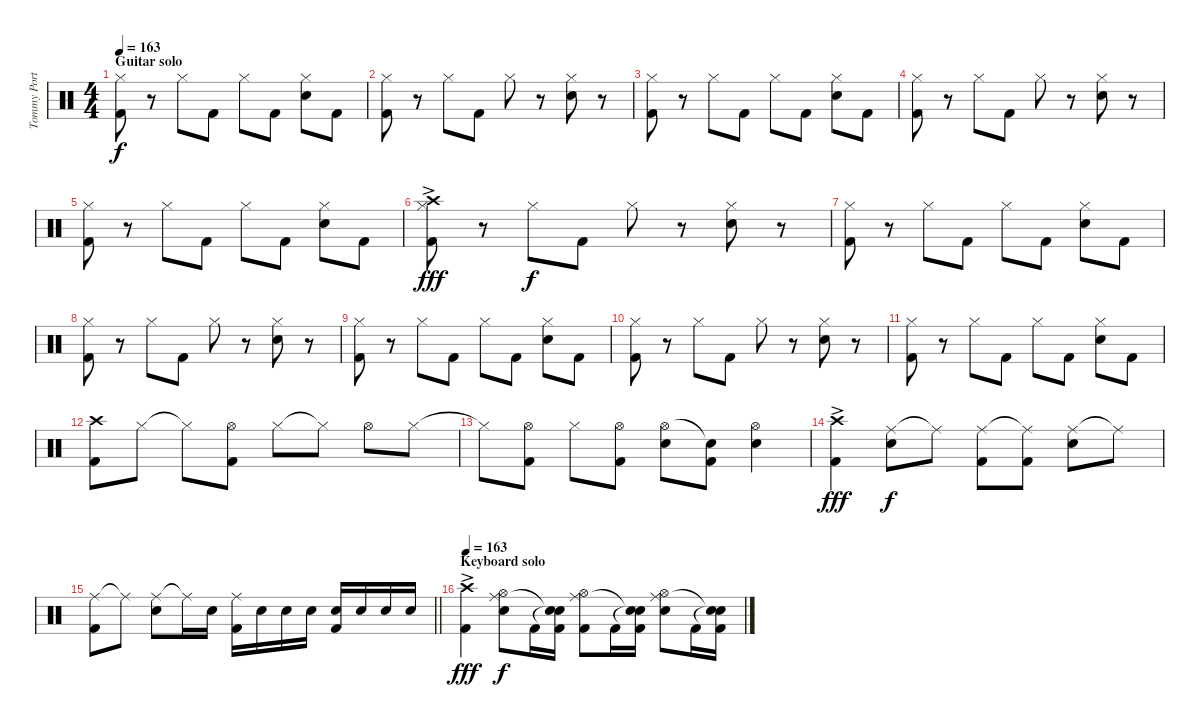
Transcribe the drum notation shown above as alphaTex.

\track ("Tommy Portimo" "Tommy Port") {instrument percussion}
\staff {score}
\articulation defaults
\ts (4 4)
\section ("" "Guitar solo")
\tempo 163
\clef neutral
\ks c
("Hi-Hat (closed)" "Kick (hit) 2").8{dy f} r.8 "Hi-Hat (closed)".8 "Kick (hit) 2".8 "Hi-Hat (closed)".8 "Kick (hit) 2".8 ("Hi-Hat (closed)" "Electric Snare (hit)").8 "Kick (hit) 2".8 |
("Hi-Hat (closed)" "Kick (hit) 2").8 r.8 "Hi-Hat (closed)".8 "Kick (hit) 2".8 "Hi-Hat (closed)".8 r.8 ("Hi-Hat (closed)" "Electric Snare (hit)").8 r.8 |
("Hi-Hat (closed)" "Kick (hit) 2").8 r.8 "Hi-Hat (closed)".8 "Kick (hit) 2".8 "Hi-Hat (closed)".8 "Kick (hit) 2".8 ("Hi-Hat (closed)" "Electric Snare (hit)").8 "Kick (hit) 2".8 |
("Hi-Hat (closed)" "Kick (hit) 2").8 r.8 "Hi-Hat (closed)".8 "Kick (hit) 2".8 "Hi-Hat (closed)".8 r.8 ("Hi-Hat (closed)" "Electric Snare (hit)").8 r.8 |
("Hi-Hat (closed)" "Kick (hit) 2").8 r.8 "Hi-Hat (closed)".8 "Kick (hit) 2".8 "Hi-Hat (closed)".8 "Kick (hit) 2".8 ("Hi-Hat (closed)" "Electric Snare (hit)").8 "Kick (hit) 2".8 |
("Crash high (hit)"{ac} "Hi-Hat (closed)" "Kick (hit) 2").8{dy fff} r.8 "Hi-Hat (closed)".8{dy f} "Kick (hit) 2".8 "Hi-Hat (closed)".8 r.8 ("Hi-Hat (closed)" "Electric Snare (hit)").8 r.8 |
("Hi-Hat (closed)" "Kick (hit) 2").8 r.8 "Hi-Hat (closed)".8 "Kick (hit) 2".8 "Hi-Hat (closed)".8 "Kick (hit) 2".8 ("Hi-Hat (closed)" "Electric Snare (hit)").8 "Kick (hit) 2".8 |
("Hi-Hat (closed)" "Kick (hit) 2").8 r.8 "Hi-Hat (closed)".8 "Kick (hit) 2".8 "Hi-Hat (closed)".8 r.8 ("Hi-Hat (closed)" "Electric Snare (hit)").8 r.8 |
("Hi-Hat (closed)" "Kick (hit) 2").8 r.8 "Hi-Hat (closed)".8 "Kick (hit) 2".8 "Hi-Hat (closed)".8 "Kick (hit) 2".8 ("Hi-Hat (closed)" "Electric Snare (hit)").8 "Kick (hit) 2".8 |
("Hi-Hat (closed)" "Kick (hit) 2").8 r.8 "Hi-Hat (closed)".8 "Kick (hit) 2".8 "Hi-Hat (closed)".8 r.8 ("Hi-Hat (closed)" "Electric Snare (hit)").8 r.8 |
("Hi-Hat (closed)" "Kick (hit) 2").8 r.8 "Hi-Hat (closed)".8 "Kick (hit) 2".8 "Hi-Hat (closed)".8 "Kick (hit) 2".8 ("Hi-Hat (closed)" "Electric Snare (hit)").8 "Kick (hit) 2".8 |
("Crash high (hit)" "Kick (hit) 2").8 "Hi-Hat (closed)".8 "Hi-Hat (closed)"{t}.8 ("Hi-Hat (open)" "Kick (hit) 2").8 "Hi-Hat (closed)".8 "Hi-Hat (closed)"{t}.8 "Hi-Hat (open)".8 "Hi-Hat (closed)".8 |
"Hi-Hat (closed)"{t}.8 ("Hi-Hat (open)" "Kick (hit) 2").8 "Hi-Hat (closed)".8 ("Hi-Hat (open)" "Kick (hit) 2").8 ("Hi-Hat (open)" "Electric Snare (hit)").8 ("Snare (hit)"{t} "Kick (hit) 2").8 ("Hi-Hat (open)" "Electric Snare (hit)").4 |
("Crash high (hit)"{ac} "Kick (hit) 2").4{dy fff} ("Ride (middle)" "Electric Snare (hit)").8{dy f} "Ride (middle)"{t}.8 ("Ride (middle)" "Kick (hit) 2").8 ("Ride (middle)"{t} "Kick (hit) 2").8 ("Ride (middle)" "Electric Snare (hit)").8 "Ride (middle)"{t}.8 |
\barLineRight lightlight
("Ride (middle)" "Kick (hit) 2").8 "Ride (middle)"{t}.8 ("Ride (middle)" "Electric Snare (hit)").8 "Ride (middle)"{t}.16 "Electric Snare (hit)".16 ("Ride (middle)" "Kick (hit) 2").16 "Electric Snare (hit)".16 "Electric Snare (hit)".16 "Electric Snare (hit)".16 ("Electric Snare (hit)" "Kick (hit) 2").16 "Electric Snare (hit)".16 "Electric Snare (hit)".16 "Electric Snare (hit)".16 |
\section ("" "Keyboard solo")
\tempo 163
("Crash high (hit)"{ac} "Kick (hit) 2").4{dy fff} ("Hi-Hat (open)" "Ride (middle)" "Electric Snare (hit)").8{dy f} "Kick (hit) 2".16 ("Snare (hit)"{t} "Snare (hit)"{t} "Kick (hit) 2").16 ("Hi-Hat (open)" "Ride (middle)" "Kick (hit) 2").8 "Kick (hit) 2".16 ("Snare (hit)"{t} "Snare (hit)"{t} "Kick (hit) 2").16 ("Hi-Hat (open)" "Ride (middle)" "Electric Snare (hit)").8 "Kick (hit) 2".16 ("Snare (hit)"{t} "Snare (hit)"{t} "Kick (hit) 2").16
